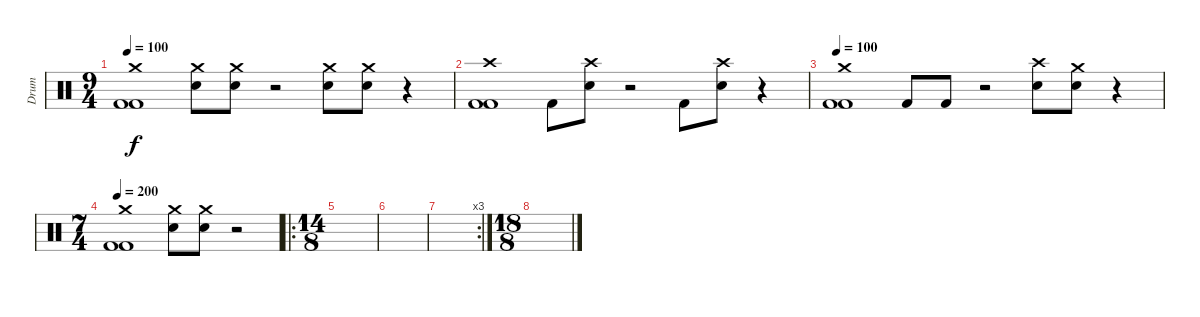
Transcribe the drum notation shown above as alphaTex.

\track ("Drum" "Drum") {instrument percussion}
\staff {score}
\articulation defaults
\ts (9 4)
\tempo 100
\clef neutral
\ks c
("Crash medium (hit)" "Kick (hit) 2" "Kick (hit) 2").1{dy f} ("Crash medium (hit)" "Electric Snare (hit)").8 ("Crash medium (hit)" "Electric Snare (hit)").8 r.2 ("Crash medium (hit)" "Electric Snare (hit)").8 ("Crash medium (hit)" "Electric Snare (hit)").8 r.4 |
("Crash high (hit)" "Kick (hit) 2" "Kick (hit) 2").1 "Kick (hit) 2".8 ("Crash high (hit)" "Electric Snare (hit)").8 r.2 "Kick (hit) 2".8 ("Crash high (hit)" "Electric Snare (hit)").8 r.4 |
\tempo 100
("Crash medium (hit)" "Kick (hit) 2" "Kick (hit) 2").1 "Kick (hit) 2".8 "Kick (hit) 2".8 r.2 ("Crash high (hit)" "Electric Snare (hit)").8 ("Crash medium (hit)" "Electric Snare (hit)").8 r.4 |
\ts (7 4)
\tempo 200
("Crash medium (hit)" "Kick (hit) 2" "Kick (hit) 2").1 ("Crash medium (hit)" "Electric Snare (hit)").8 ("Crash medium (hit)" "Electric Snare (hit)").8 r.2 |
\ro
\ts (14 8)
|
|
\rc 3
|
\ts (18 8)
